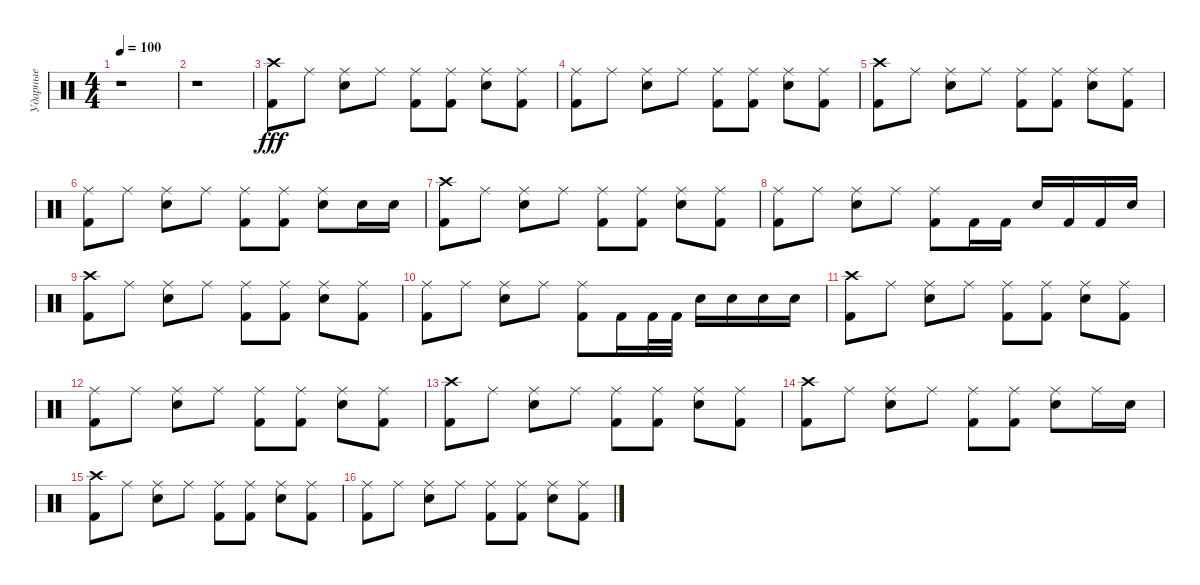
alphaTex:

\track ("Ударные" "Ударные") {instrument percussion}
\staff {score}
\articulation defaults
\ts (4 4)
\tempo 100
\clef neutral
\ks c
r.1{dy fff} |
r.1 |
("Kick (hit) 2" "Crash high (hit)").8 "Ride (middle)".8 ("Electric Snare (hit)" "Ride (middle)").8 "Ride (middle)".8 ("Kick (hit) 2" "Ride (middle)").8 ("Kick (hit) 2" "Ride (middle)").8 ("Electric Snare (hit)" "Ride (middle)").8 ("Kick (hit) 2" "Ride (middle)").8 |
("Kick (hit) 2" "Ride (middle)").8 "Ride (middle)".8 ("Electric Snare (hit)" "Ride (middle)").8 "Ride (middle)".8 ("Kick (hit) 2" "Ride (middle)").8 ("Kick (hit) 2" "Ride (middle)").8 ("Electric Snare (hit)" "Ride (middle)").8 ("Ride (middle)" "Kick (hit) 2").8 |
("Kick (hit) 2" "Crash high (hit)").8 "Ride (middle)".8 ("Electric Snare (hit)" "Ride (middle)").8 "Ride (middle)".8 ("Kick (hit) 2" "Ride (middle)").8 ("Kick (hit) 2" "Ride (middle)").8 ("Electric Snare (hit)" "Ride (middle)").8 ("Ride (middle)" "Kick (hit) 2").8 |
("Kick (hit) 2" "Ride (middle)").8 "Ride (middle)".8 ("Electric Snare (hit)" "Ride (middle)").8 "Ride (middle)".8 ("Kick (hit) 2" "Ride (middle)").8 ("Kick (hit) 2" "Ride (middle)").8 ("Electric Snare (hit)" "Ride (middle)").8 "Electric Snare (hit)".16 "Electric Snare (hit)".16 |
("Kick (hit) 2" "Crash high (hit)").8 "Ride (middle)".8 ("Electric Snare (hit)" "Ride (middle)").8 "Ride (middle)".8 ("Kick (hit) 2" "Ride (middle)").8 ("Kick (hit) 2" "Ride (middle)").8 ("Electric Snare (hit)" "Ride (middle)").8 ("Ride (middle)" "Kick (hit) 2").8 |
("Kick (hit) 2" "Ride (middle)").8 "Ride (middle)".8 ("Electric Snare (hit)" "Ride (middle)").8 "Ride (middle)".8 ("Kick (hit) 2" "Ride (middle)").8 "Kick (hit) 2".16 "Kick (hit) 2".16 "Electric Snare (hit)".16 "Kick (hit) 2".16 "Kick (hit) 2".16 "Electric Snare (hit)".16 |
("Kick (hit) 2" "Crash high (hit)").8 "Ride (middle)".8 ("Electric Snare (hit)" "Ride (middle)").8 "Ride (middle)".8 ("Kick (hit) 2" "Ride (middle)").8 ("Kick (hit) 2" "Ride (middle)").8 ("Electric Snare (hit)" "Ride (middle)").8 ("Ride (middle)" "Kick (hit) 2").8 |
("Kick (hit) 2" "Ride (middle)").8 "Ride (middle)".8 ("Electric Snare (hit)" "Ride (middle)").8 "Ride (middle)".8 ("Kick (hit) 2" "Ride (middle)").8 "Kick (hit) 2".16 "Kick (hit) 2".32 "Kick (hit) 2".32 "Electric Snare (hit)".16 "Electric Snare (hit)".16 "Electric Snare (hit)".16 "Electric Snare (hit)".16 |
("Kick (hit) 2" "Crash high (hit)").8 "Ride (middle)".8 ("Electric Snare (hit)" "Ride (middle)").8 "Ride (middle)".8 ("Kick (hit) 2" "Ride (middle)").8 ("Kick (hit) 2" "Ride (middle)").8 ("Electric Snare (hit)" "Ride (middle)").8 ("Ride (middle)" "Kick (hit) 2").8 |
("Kick (hit) 2" "Ride (middle)").8 "Ride (middle)".8 ("Electric Snare (hit)" "Ride (middle)").8 "Ride (middle)".8 ("Kick (hit) 2" "Ride (middle)").8 ("Kick (hit) 2" "Ride (middle)").8 ("Electric Snare (hit)" "Ride (middle)").8 ("Ride (middle)" "Kick (hit) 2").8 |
("Kick (hit) 2" "Crash high (hit)").8 "Ride (middle)".8 ("Electric Snare (hit)" "Ride (middle)").8 "Ride (middle)".8 ("Kick (hit) 2" "Ride (middle)").8 ("Kick (hit) 2" "Ride (middle)").8 ("Electric Snare (hit)" "Ride (middle)").8 ("Ride (middle)" "Kick (hit) 2").8 |
("Kick (hit) 2" "Crash high (hit)").8 "Ride (middle)".8 ("Electric Snare (hit)" "Ride (middle)").8 "Ride (middle)".8 ("Kick (hit) 2" "Ride (middle)").8 ("Kick (hit) 2" "Ride (middle)").8 ("Electric Snare (hit)" "Ride (middle)").8 "Ride (middle)".16 "Electric Snare (hit)".16 |
("Kick (hit) 2" "Crash high (hit)").8 "Ride (middle)".8 ("Electric Snare (hit)" "Ride (middle)").8 "Ride (middle)".8 ("Kick (hit) 2" "Ride (middle)").8 ("Kick (hit) 2" "Ride (middle)").8 ("Electric Snare (hit)" "Ride (middle)").8 ("Ride (middle)" "Kick (hit) 2").8 |
("Kick (hit) 2" "Ride (middle)").8 "Ride (middle)".8 ("Electric Snare (hit)" "Ride (middle)").8 "Ride (middle)".8 ("Kick (hit) 2" "Ride (middle)").8 ("Kick (hit) 2" "Ride (middle)").8 ("Electric Snare (hit)" "Ride (middle)").8 ("Ride (middle)" "Kick (hit) 2").8
